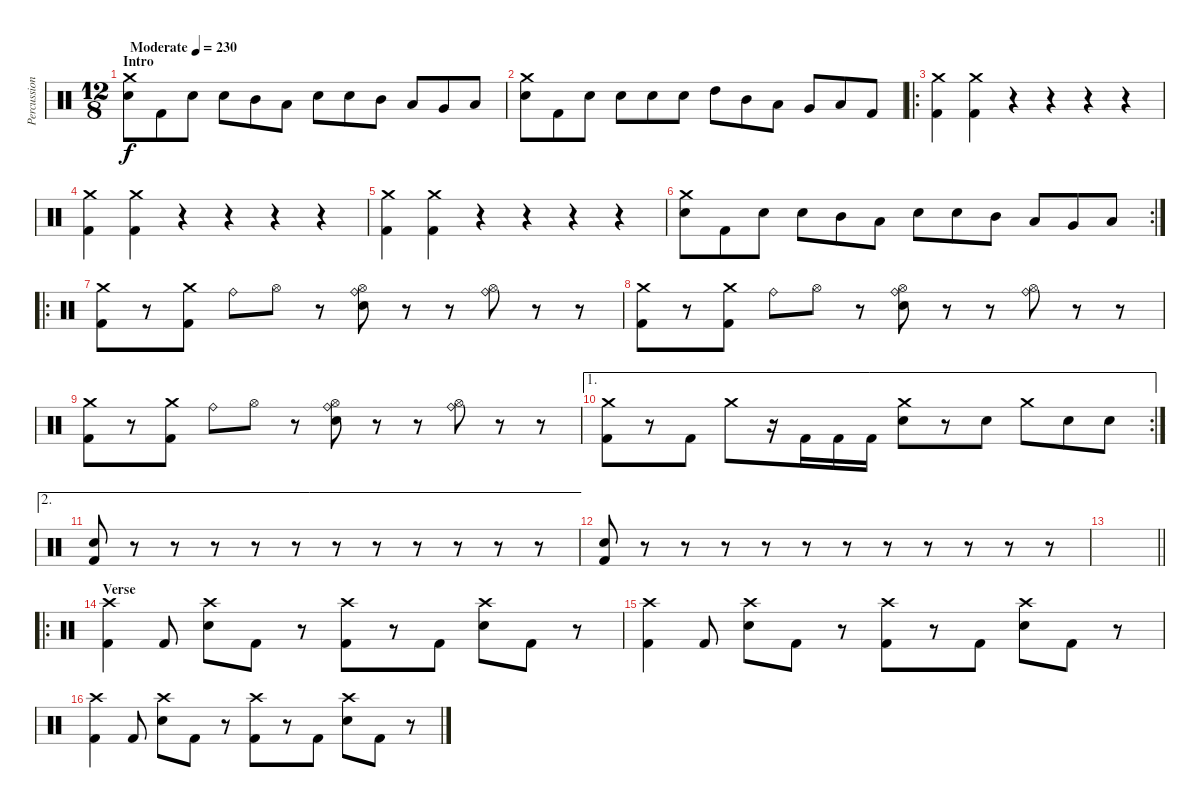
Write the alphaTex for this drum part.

\track ("Percussions" "Percussion") {instrument percussion}
\staff {score}
\articulation defaults
\ts (12 8)
\section ("" "Intro")
\tempo (230 "Moderate")
\clef neutral
\ks c
("Crash medium (hit)" "Electric Snare (hit)").8{dy f} "Kick (hit) 2".8 "Electric Snare (hit)".8 "Electric Snare (hit)".8 "Mid Tom (hit)".8 "Low Tom (hit)".8 "Electric Snare (hit)".8 "Electric Snare (hit)".8 "Mid Tom (hit)".8 "Low Tom (hit)".8 "Very Low Tom (hit)".8 "Low Floor Tom (hit)".8 |
("Crash medium (hit)" "Electric Snare (hit)").8 "Kick (hit) 2".8 "Electric Snare (hit)".8 "Electric Snare (hit)".8 "Electric Snare (hit)".8 "Electric Snare (hit)".8 "High Tom (hit)".8 "Mid Tom (hit)".8 "Low Tom (hit)".8 "Very Low Tom (hit)".8 "Low Floor Tom (hit)".8 "Kick (hit) 2".8 |
\ro
("Crash medium (hit)" "Kick (hit) 2").4 ("Crash medium (hit)" "Kick (hit) 2").4 r.4 r.4 r.4 r.4 |
("Crash medium (hit)" "Kick (hit) 2").4 ("Crash medium (hit)" "Kick (hit) 2").4 r.4 r.4 r.4 r.4 |
("Crash medium (hit)" "Kick (hit) 2").4 ("Crash medium (hit)" "Kick (hit) 2").4 r.4 r.4 r.4 r.4 |
\rc 2
("Crash medium (hit)" "Electric Snare (hit)").8 "Kick (hit) 2".8 "Electric Snare (hit)".8 "Electric Snare (hit)".8 "Mid Tom (hit)".8 "Low Tom (hit)".8 "Electric Snare (hit)".8 "Electric Snare (hit)".8 "Mid Tom (hit)".8 "Low Tom (hit)".8 "Very Low Tom (hit)".8 "Low Floor Tom (hit)".8 |
\ro
("Crash medium (hit)" "Kick (hit) 2").8 r.8 ("Crash medium (hit)" "Kick (hit) 2").8 "Ride (bell)".8 "Hi-Hat (open)".8 r.8 ("Hi-Hat (open)" "Ride (bell)" "Electric Snare (hit)").8 r.8 r.8 ("Hi-Hat (open)" "Ride (bell)").8 r.8 r.8 |
("Crash medium (hit)" "Kick (hit) 2").8 r.8 ("Crash medium (hit)" "Kick (hit) 2").8 "Ride (bell)".8 "Hi-Hat (open)".8 r.8 ("Hi-Hat (open)" "Ride (bell)" "Electric Snare (hit)").8 r.8 r.8 ("Hi-Hat (open)" "Ride (bell)").8 r.8 r.8 |
("Crash medium (hit)" "Kick (hit) 2").8 r.8 ("Crash medium (hit)" "Kick (hit) 2").8 "Ride (bell)".8 "Hi-Hat (open)".8 r.8 ("Hi-Hat (open)" "Ride (bell)" "Electric Snare (hit)").8 r.8 r.8 ("Hi-Hat (open)" "Ride (bell)").8 r.8 r.8 |
\ae 1
\rc 2
("Crash medium (hit)" "Kick (hit) 2").8 r.8 "Kick (hit) 2".8 "Crash medium (hit)".8 r.16 "Kick (hit) 2".16 "Kick (hit) 2".16 "Kick (hit) 2".16 ("Crash medium (hit)" "Electric Snare (hit)").8 r.8 "Electric Snare (hit)".8 "Crash medium (hit)".8 "Electric Snare (hit)".8 "Electric Snare (hit)".8 |
\ae 2
("Electric Snare (hit)" "Kick (hit) 2").8 r.8 r.8 r.8 r.8 r.8 r.8 r.8 r.8 r.8 r.8 r.8 |
("Electric Snare (hit)" "Kick (hit) 2").8 r.8 r.8 r.8 r.8 r.8 r.8 r.8 r.8 r.8 r.8 r.8 |
\barLineRight lightlight
|
\ro
\section ("" "Verse")
("Crash high (hit)" "Kick (hit) 2").4 "Kick (hit) 2".8 ("Crash high (hit)" "Electric Snare (hit)").8 "Kick (hit) 2".8 r.8 ("Crash high (hit)" "Kick (hit) 2").8 r.8 "Kick (hit) 2".8 ("Crash high (hit)" "Electric Snare (hit)").8 "Kick (hit) 2".8 r.8 |
("Crash high (hit)" "Kick (hit) 2").4 "Kick (hit) 2".8 ("Crash high (hit)" "Electric Snare (hit)").8 "Kick (hit) 2".8 r.8 ("Crash high (hit)" "Kick (hit) 2").8 r.8 "Kick (hit) 2".8 ("Crash high (hit)" "Electric Snare (hit)").8 "Kick (hit) 2".8 r.8 |
("Crash high (hit)" "Kick (hit) 2").4 "Kick (hit) 2".8 ("Crash high (hit)" "Electric Snare (hit)").8 "Kick (hit) 2".8 r.8 ("Crash high (hit)" "Kick (hit) 2").8 r.8 "Kick (hit) 2".8 ("Crash high (hit)" "Electric Snare (hit)").8 "Kick (hit) 2".8 r.8
